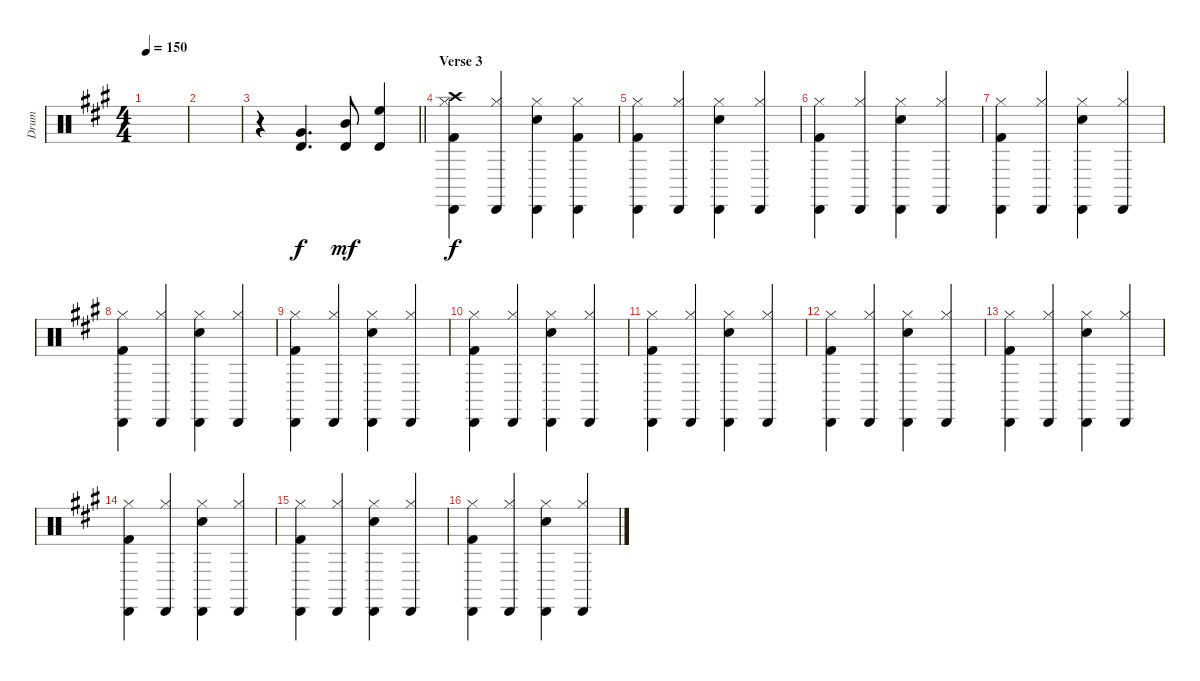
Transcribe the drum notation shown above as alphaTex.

\track ("Drum " "Drum ") {instrument percussion}
\staff {score}
\articulation defaults
\ts (4 4)
\tempo 150
\clef neutral
\ks a
|
|
\barLineRight lightlight
r.4 ("Very Low Tom (hit)" "Timbale high (hit)").4{d} ("Mid Tom (hit)" "Timbale high (hit)").8{dy mf} ("High Floor Tom (hit)" "Timbale high (hit)").4 |
\section ("" "Verse 3")
("Hi-Hat (closed)" "Crash high (hit)" "Cabasa (hit)" "Kick (hit) 2").4{dy f} ("Hi-Hat (closed)" "Cabasa (hit)").4 ("Hi-Hat (closed)" "Snare (hit) 2" "Cabasa (hit)").4 ("Hi-Hat (closed)" "Cabasa (hit)" "Kick (hit) 2").4 |
("Hi-Hat (closed)" "Cabasa (hit)" "Kick (hit) 2").4 ("Hi-Hat (closed)" "Cabasa (hit)").4 ("Hi-Hat (closed)" "Snare (hit) 2" "Cabasa (hit)").4 ("Hi-Hat (closed)" "Cabasa (hit)").4 |
("Hi-Hat (closed)" "Cabasa (hit)" "Kick (hit) 2").4 ("Hi-Hat (closed)" "Cabasa (hit)").4 ("Hi-Hat (closed)" "Snare (hit) 2" "Cabasa (hit)").4 ("Hi-Hat (closed)" "Cabasa (hit)").4 |
("Hi-Hat (closed)" "Cabasa (hit)" "Kick (hit) 2").4 ("Hi-Hat (closed)" "Cabasa (hit)").4 ("Hi-Hat (closed)" "Snare (hit) 2" "Cabasa (hit)").4 ("Hi-Hat (closed)" "Cabasa (hit)").4 |
("Hi-Hat (closed)" "Cabasa (hit)" "Kick (hit) 2").4 ("Hi-Hat (closed)" "Cabasa (hit)").4 ("Hi-Hat (closed)" "Snare (hit) 2" "Cabasa (hit)").4 ("Hi-Hat (closed)" "Cabasa (hit)").4 |
("Hi-Hat (closed)" "Cabasa (hit)" "Kick (hit) 2").4 ("Hi-Hat (closed)" "Cabasa (hit)").4 ("Hi-Hat (closed)" "Snare (hit) 2" "Cabasa (hit)").4 ("Hi-Hat (closed)" "Cabasa (hit)").4 |
("Hi-Hat (closed)" "Cabasa (hit)" "Kick (hit) 2").4 ("Hi-Hat (closed)" "Cabasa (hit)").4 ("Hi-Hat (closed)" "Snare (hit) 2" "Cabasa (hit)").4 ("Hi-Hat (closed)" "Cabasa (hit)").4 |
("Hi-Hat (closed)" "Cabasa (hit)" "Kick (hit) 2").4 ("Hi-Hat (closed)" "Cabasa (hit)").4 ("Hi-Hat (closed)" "Snare (hit) 2" "Cabasa (hit)").4 ("Hi-Hat (closed)" "Cabasa (hit)").4 |
("Hi-Hat (closed)" "Cabasa (hit)" "Kick (hit) 2").4 ("Hi-Hat (closed)" "Cabasa (hit)").4 ("Hi-Hat (closed)" "Snare (hit) 2" "Cabasa (hit)").4 ("Hi-Hat (closed)" "Cabasa (hit)").4 |
("Hi-Hat (closed)" "Cabasa (hit)" "Kick (hit) 2").4 ("Hi-Hat (closed)" "Cabasa (hit)").4 ("Hi-Hat (closed)" "Snare (hit) 2" "Cabasa (hit)").4 ("Hi-Hat (closed)" "Cabasa (hit)").4 |
("Hi-Hat (closed)" "Cabasa (hit)" "Kick (hit) 2").4 ("Hi-Hat (closed)" "Cabasa (hit)").4 ("Hi-Hat (closed)" "Snare (hit) 2" "Cabasa (hit)").4 ("Hi-Hat (closed)" "Cabasa (hit)").4 |
("Hi-Hat (closed)" "Cabasa (hit)" "Kick (hit) 2").4 ("Hi-Hat (closed)" "Cabasa (hit)").4 ("Hi-Hat (closed)" "Snare (hit) 2" "Cabasa (hit)").4 ("Hi-Hat (closed)" "Cabasa (hit)").4 |
("Hi-Hat (closed)" "Cabasa (hit)" "Kick (hit) 2").4 ("Hi-Hat (closed)" "Cabasa (hit)").4 ("Hi-Hat (closed)" "Snare (hit) 2" "Cabasa (hit)").4 ("Hi-Hat (closed)" "Cabasa (hit)").4
